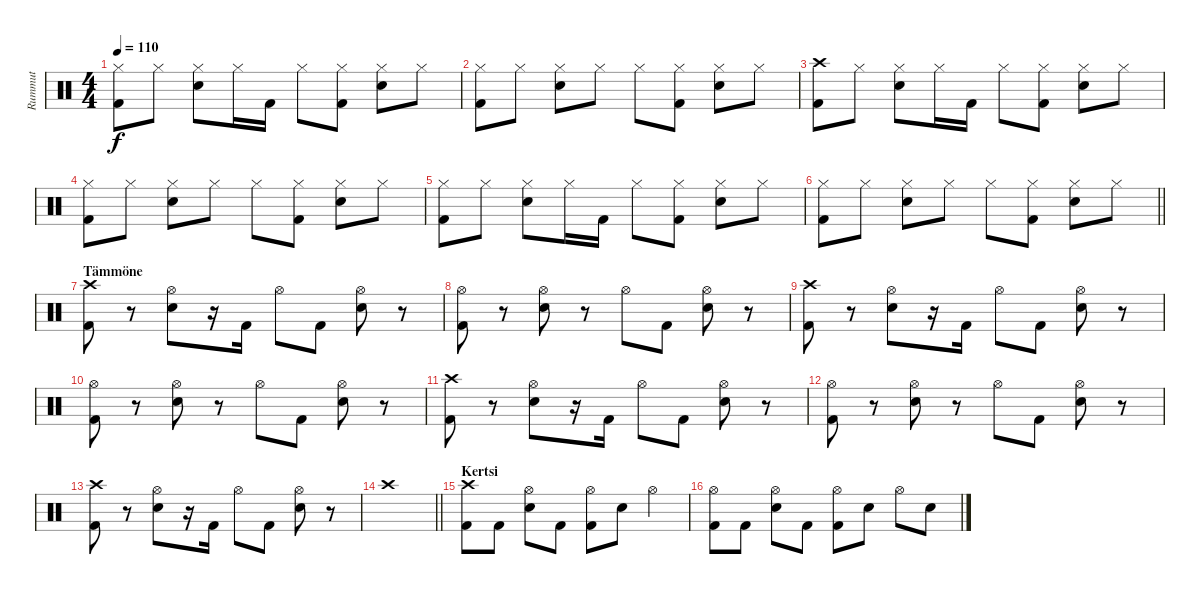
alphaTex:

\track ("Rummut" "Rummut") {instrument percussion}
\staff {score}
\articulation defaults
\ts (4 4)
\tempo 110
\clef neutral
\ks c
("Hi-Hat (closed)" "Kick (hit) 2").8{dy f} "Hi-Hat (closed)".8 ("Hi-Hat (closed)" "Snare (hit) 2").8 "Hi-Hat (closed)".16 "Kick (hit) 2".16 "Hi-Hat (closed)".8 ("Hi-Hat (closed)" "Kick (hit) 2").8 ("Hi-Hat (closed)" "Snare (hit) 2").8 "Hi-Hat (closed)".8 |
("Hi-Hat (closed)" "Kick (hit) 2").8 "Hi-Hat (closed)".8 ("Hi-Hat (closed)" "Snare (hit) 2").8 "Hi-Hat (closed)".8 "Hi-Hat (closed)".8 ("Hi-Hat (closed)" "Kick (hit) 2").8 ("Hi-Hat (closed)" "Snare (hit) 2").8 "Hi-Hat (closed)".8 |
("Crash high (hit)" "Kick (hit) 2").8 "Hi-Hat (closed)".8 ("Hi-Hat (closed)" "Snare (hit) 2").8 "Hi-Hat (closed)".16 "Kick (hit) 2".16 "Hi-Hat (closed)".8 ("Hi-Hat (closed)" "Kick (hit) 2").8 ("Hi-Hat (closed)" "Snare (hit) 2").8 "Hi-Hat (closed)".8 |
("Hi-Hat (closed)" "Kick (hit) 2").8 "Hi-Hat (closed)".8 ("Hi-Hat (closed)" "Snare (hit) 2").8 "Hi-Hat (closed)".8 "Hi-Hat (closed)".8 ("Hi-Hat (closed)" "Kick (hit) 2").8 ("Hi-Hat (closed)" "Snare (hit) 2").8 "Hi-Hat (closed)".8 |
("Hi-Hat (closed)" "Kick (hit) 2").8 "Hi-Hat (closed)".8 ("Hi-Hat (closed)" "Snare (hit) 2").8 "Hi-Hat (closed)".16 "Kick (hit) 2".16 "Hi-Hat (closed)".8 ("Hi-Hat (closed)" "Kick (hit) 2").8 ("Hi-Hat (closed)" "Snare (hit) 2").8 "Hi-Hat (closed)".8 |
\barLineRight lightlight
("Hi-Hat (closed)" "Kick (hit) 2").8 "Hi-Hat (closed)".8 ("Hi-Hat (closed)" "Snare (hit) 2").8 "Hi-Hat (closed)".8 "Hi-Hat (closed)".8 ("Hi-Hat (closed)" "Kick (hit) 2").8 ("Hi-Hat (closed)" "Snare (hit) 2").8 "Hi-Hat (closed)".8 |
\section ("" "Tämmöne")
("Crash high (hit)" "Kick (hit) 2").8 r.8 ("Hi-Hat (open)" "Snare (hit) 2").8 r.16 "Kick (hit) 2".16 "Hi-Hat (open)".8 "Kick (hit) 2".8 ("Hi-Hat (open)" "Snare (hit) 2").8 r.8 |
("Hi-Hat (open)" "Kick (hit) 2").8 r.8 ("Hi-Hat (open)" "Snare (hit) 2").8 r.8 "Hi-Hat (open)".8 "Kick (hit) 2".8 ("Hi-Hat (open)" "Snare (hit) 2").8 r.8 |
("Crash high (hit)" "Kick (hit) 2").8 r.8 ("Hi-Hat (open)" "Snare (hit) 2").8 r.16 "Kick (hit) 2".16 "Hi-Hat (open)".8 "Kick (hit) 2".8 ("Hi-Hat (open)" "Snare (hit) 2").8 r.8 |
("Hi-Hat (open)" "Kick (hit) 2").8 r.8 ("Hi-Hat (open)" "Snare (hit) 2").8 r.8 "Hi-Hat (open)".8 "Kick (hit) 2".8 ("Hi-Hat (open)" "Snare (hit) 2").8 r.8 |
("Crash high (hit)" "Kick (hit) 2").8 r.8 ("Hi-Hat (open)" "Snare (hit) 2").8 r.16 "Kick (hit) 2".16 "Hi-Hat (open)".8 "Kick (hit) 2".8 ("Hi-Hat (open)" "Snare (hit) 2").8 r.8 |
("Hi-Hat (open)" "Kick (hit) 2").8 r.8 ("Hi-Hat (open)" "Snare (hit) 2").8 r.8 "Hi-Hat (open)".8 "Kick (hit) 2".8 ("Hi-Hat (open)" "Snare (hit) 2").8 r.8 |
("Crash high (hit)" "Kick (hit) 2").8 r.8 ("Hi-Hat (open)" "Snare (hit) 2").8 r.16 "Kick (hit) 2".16 "Hi-Hat (open)".8 "Kick (hit) 2".8 ("Hi-Hat (open)" "Snare (hit) 2").8 r.8 |
\barLineRight lightlight "Crash high (hit)".1
|
\section ("" "Kertsi")
("Crash high (hit)" "Kick (hit) 2").8 "Kick (hit) 2".8 ("Hi-Hat (open)" "Snare (hit) 2").8 "Kick (hit) 2".8 ("Hi-Hat (open)" "Kick (hit) 2").8 "Snare (hit) 2".8 "Hi-Hat (open)".4 |
("Hi-Hat (open)" "Kick (hit) 2").8 "Kick (hit) 2".8 ("Hi-Hat (open)" "Snare (hit) 2").8 "Kick (hit) 2".8 ("Hi-Hat (open)" "Kick (hit) 2").8 "Snare (hit) 2".8 "Hi-Hat (open)".8 "Snare (hit) 2".8
